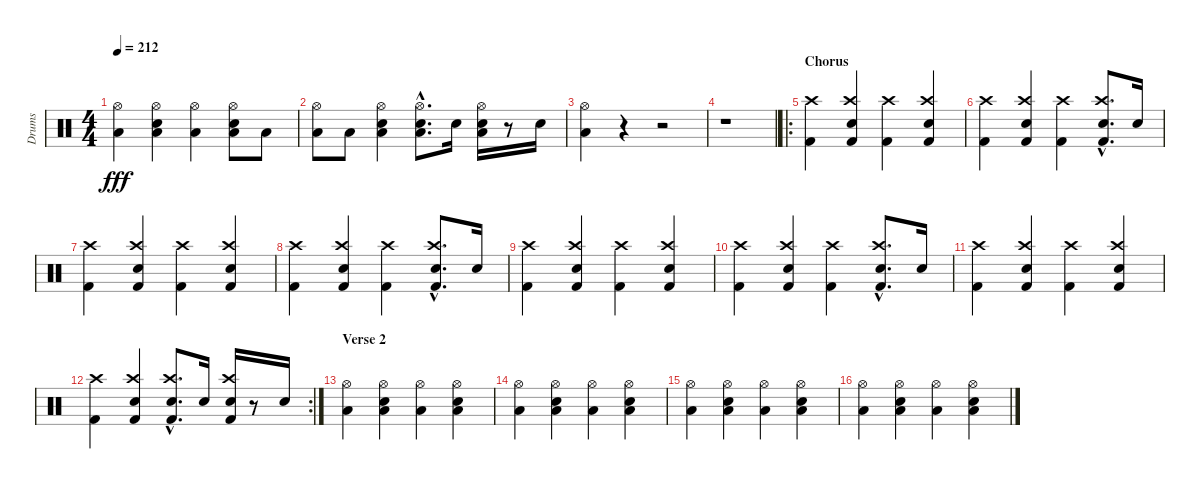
\track ("Drums" "Drums") {instrument percussion}
\staff {score}
\articulation defaults
\ts (4 4)
\tempo 212
\clef neutral
\ks c
("Low Floor Tom (hit)" "Hi-Hat (open)").4{dy fff} ("Low Floor Tom (hit)" "Hi-Hat (open)" "Electric Snare (hit)").4 ("Low Tom (hit)" "Hi-Hat (open)").4 ("Low Floor Tom (hit)" "Hi-Hat (open)" "Electric Snare (hit)").8 "Low Tom (hit)".8 |
("Low Floor Tom (hit)" "Hi-Hat (open)").8 "Low Tom (hit)".8 ("Low Floor Tom (hit)" "Hi-Hat (open)" "Electric Snare (hit)").4 ("Low Tom (hit)"{hac} "Hi-Hat (open)"{hac} "Electric Snare (hit)"{hac}).8{d} "Electric Snare (hit)".16 ("Low Floor Tom (hit)" "Hi-Hat (open)" "Electric Snare (hit)").16 r.8 "Electric Snare (hit)".16 |
("Low Floor Tom (hit)" "Hi-Hat (open)").4 r.4 r.2 |
r.1 |
\ro
\section ("" "Chorus")
("Crash high (hit)" "Kick (hit) 2").4 ("Crash high (hit)" "Electric Snare (hit)" "Kick (hit) 2").4 ("Crash high (hit)" "Kick (hit) 2").4 ("Crash high (hit)" "Electric Snare (hit)" "Kick (hit) 2").4 |
("Crash high (hit)" "Kick (hit) 2").4 ("Crash high (hit)" "Electric Snare (hit)" "Kick (hit) 2").4 ("Crash high (hit)" "Kick (hit) 2").4 ("Crash high (hit)"{hac} "Electric Snare (hit)"{hac} "Kick (hit) 2"{hac}).8{d} "Electric Snare (hit)".16 |
("Crash high (hit)" "Kick (hit) 2").4 ("Crash high (hit)" "Electric Snare (hit)" "Kick (hit) 2").4 ("Crash high (hit)" "Kick (hit) 2").4 ("Crash high (hit)" "Electric Snare (hit)" "Kick (hit) 2").4 |
("Crash high (hit)" "Kick (hit) 2").4 ("Crash high (hit)" "Electric Snare (hit)" "Kick (hit) 2").4 ("Crash high (hit)" "Kick (hit) 2").4 ("Crash high (hit)"{hac} "Electric Snare (hit)"{hac} "Kick (hit) 2"{hac}).8{d} "Electric Snare (hit)".16 |
("Crash high (hit)" "Kick (hit) 2").4 ("Crash high (hit)" "Electric Snare (hit)" "Kick (hit) 2").4 ("Crash high (hit)" "Kick (hit) 2").4 ("Crash high (hit)" "Electric Snare (hit)" "Kick (hit) 2").4 |
("Crash high (hit)" "Kick (hit) 2").4 ("Crash high (hit)" "Electric Snare (hit)" "Kick (hit) 2").4 ("Crash high (hit)" "Kick (hit) 2").4 ("Crash high (hit)"{hac} "Electric Snare (hit)"{hac} "Kick (hit) 2"{hac}).8{d} "Electric Snare (hit)".16 |
("Crash high (hit)" "Kick (hit) 2").4 ("Crash high (hit)" "Electric Snare (hit)" "Kick (hit) 2").4 ("Crash high (hit)" "Kick (hit) 2").4 ("Crash high (hit)" "Electric Snare (hit)" "Kick (hit) 2").4 |
\rc 2
("Crash high (hit)" "Kick (hit) 2").4 ("Crash high (hit)" "Electric Snare (hit)" "Kick (hit) 2").4 ("Crash high (hit)"{hac} "Electric Snare (hit)"{hac} "Kick (hit) 2"{hac}).8{d} "Electric Snare (hit)".16 ("Crash high (hit)" "Electric Snare (hit)" "Kick (hit) 2").16 r.8 "Electric Snare (hit)".16 |
\section ("" "Verse 2")
("Low Floor Tom (hit)" "Hi-Hat (open)").4 ("Low Floor Tom (hit)" "Hi-Hat (open)" "Electric Snare (hit)").4 ("Low Floor Tom (hit)" "Hi-Hat (open)").4 ("Low Floor Tom (hit)" "Hi-Hat (open)" "Electric Snare (hit)").4 |
("Low Floor Tom (hit)" "Hi-Hat (open)").4 ("Low Floor Tom (hit)" "Hi-Hat (open)" "Electric Snare (hit)").4 ("Low Floor Tom (hit)" "Hi-Hat (open)").4 ("Low Floor Tom (hit)" "Hi-Hat (open)" "Electric Snare (hit)").4 |
("Low Floor Tom (hit)" "Hi-Hat (open)").4 ("Low Floor Tom (hit)" "Hi-Hat (open)" "Electric Snare (hit)").4 ("Low Floor Tom (hit)" "Hi-Hat (open)").4 ("Low Floor Tom (hit)" "Hi-Hat (open)" "Electric Snare (hit)").4 |
("Low Floor Tom (hit)" "Hi-Hat (open)").4 ("Low Floor Tom (hit)" "Hi-Hat (open)" "Electric Snare (hit)").4 ("Low Floor Tom (hit)" "Hi-Hat (open)").4 ("Low Floor Tom (hit)" "Hi-Hat (open)" "Electric Snare (hit)").4
